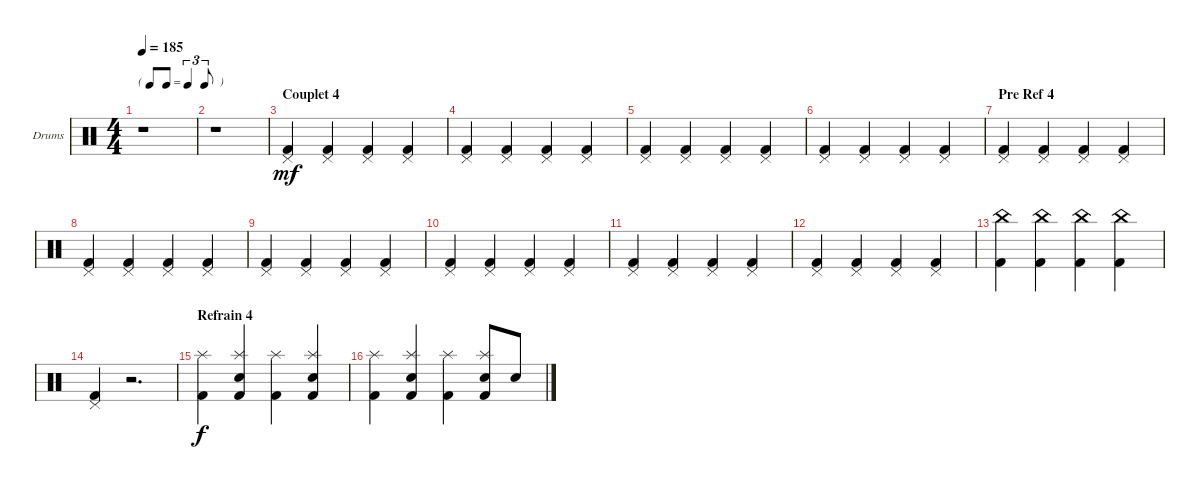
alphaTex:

\defaultSystemsLayout 4
\bracketExtendMode groupsimilarinstruments
\firstSystemTrackNameOrientation horizontal
\otherSystemsTrackNameOrientation horizontal
\track ("Batterie" "Drums") {instrument percussion}
\staff {score}
\articulation defaults
\ts (4 4)
\tf triplet8th
\tempo 185
\clef neutral
\ks c
r.1{dy mf} |
r.1 |
\section ("" "Couplet 4")
("Kick (hit) 2" "Pedal Hi-Hat (hit)").4 ("Kick (hit) 2" "Pedal Hi-Hat (hit)").4 ("Kick (hit) 2" "Pedal Hi-Hat (hit)").4 ("Kick (hit) 2" "Pedal Hi-Hat (hit)").4 |
("Kick (hit) 2" "Pedal Hi-Hat (hit)").4 ("Kick (hit) 2" "Pedal Hi-Hat (hit)").4 ("Kick (hit) 2" "Pedal Hi-Hat (hit)").4 ("Kick (hit) 2" "Pedal Hi-Hat (hit)").4 |
("Kick (hit) 2" "Pedal Hi-Hat (hit)").4 ("Kick (hit) 2" "Pedal Hi-Hat (hit)").4 ("Kick (hit) 2" "Pedal Hi-Hat (hit)").4 ("Kick (hit) 2" "Pedal Hi-Hat (hit)").4 |
("Kick (hit) 2" "Pedal Hi-Hat (hit)").4 ("Kick (hit) 2" "Pedal Hi-Hat (hit)").4 ("Kick (hit) 2" "Pedal Hi-Hat (hit)").4 ("Kick (hit) 2" "Pedal Hi-Hat (hit)").4 |
\section ("" "Pre Ref 4")
("Kick (hit) 2" "Pedal Hi-Hat (hit)").4 ("Kick (hit) 2" "Pedal Hi-Hat (hit)").4 ("Kick (hit) 2" "Pedal Hi-Hat (hit)").4 ("Kick (hit) 2" "Pedal Hi-Hat (hit)").4 |
("Kick (hit) 2" "Pedal Hi-Hat (hit)").4 ("Kick (hit) 2" "Pedal Hi-Hat (hit)").4 ("Kick (hit) 2" "Pedal Hi-Hat (hit)").4 ("Kick (hit) 2" "Pedal Hi-Hat (hit)").4 |
("Kick (hit) 2" "Pedal Hi-Hat (hit)").4 ("Kick (hit) 2" "Pedal Hi-Hat (hit)").4 ("Kick (hit) 2" "Pedal Hi-Hat (hit)").4 ("Kick (hit) 2" "Pedal Hi-Hat (hit)").4 |
("Kick (hit) 2" "Pedal Hi-Hat (hit)").4 ("Kick (hit) 2" "Pedal Hi-Hat (hit)").4 ("Kick (hit) 2" "Pedal Hi-Hat (hit)").4 ("Kick (hit) 2" "Pedal Hi-Hat (hit)").4 |
("Kick (hit) 2" "Pedal Hi-Hat (hit)").4 ("Kick (hit) 2" "Pedal Hi-Hat (hit)").4 ("Kick (hit) 2" "Pedal Hi-Hat (hit)").4 ("Kick (hit) 2" "Pedal Hi-Hat (hit)").4 |
("Kick (hit) 2" "Pedal Hi-Hat (hit)").4 ("Kick (hit) 2" "Pedal Hi-Hat (hit)").4 ("Kick (hit) 2" "Pedal Hi-Hat (hit)").4 ("Kick (hit) 2" "Pedal Hi-Hat (hit)").4 |
("Kick (hit) 2" "China (hit)").4 ("Kick (hit) 2" "China (hit)").4 ("Kick (hit) 2" "China (hit)").4 ("Kick (hit) 2" "China (hit)").4 |
("Kick (hit) 2" "Pedal Hi-Hat (hit)").4 r.2{d} |
\section ("" "Refrain 4")
("Kick (hit) 2" "Splash (hit)").4{dy f} ("Kick (hit) 2" "Snare (hit) 2" "Splash (hit)").4 ("Kick (hit) 2" "Splash (hit)").4 ("Kick (hit) 2" "Snare (hit) 2" "Splash (hit)").4 |
("Kick (hit) 2" "Splash (hit)").4 ("Kick (hit) 2" "Snare (hit) 2" "Splash (hit)").4 ("Kick (hit) 2" "Splash (hit)").4 ("Kick (hit) 2" "Snare (hit) 2" "Splash (hit)").8 "Snare (hit) 2".8
